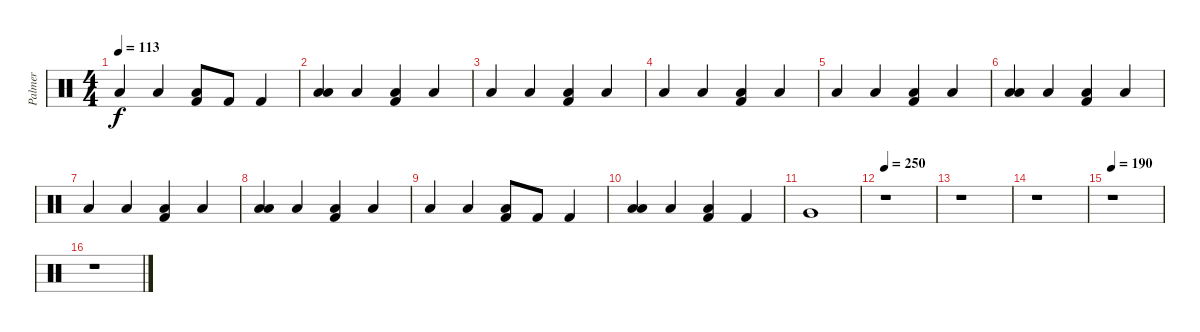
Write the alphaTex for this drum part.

\track ("Palmer" "Palmer") {instrument percussion}
\staff {score}
\articulation defaults
\ts (4 4)
\tempo 113
\clef neutral
\ks c "Low Floor Tom (hit)".4{dy f} "Low Floor Tom (hit)".4
("Low Floor Tom (hit)" "Kick (hit) 2").8 "Kick (hit) 2".8 "Kick (hit) 2".4 |
("Low Floor Tom (hit)" "Low Tom (hit)").4 "Low Floor Tom (hit)".4 ("Low Floor Tom (hit)" "Kick (hit) 2").4 "Low Floor Tom (hit)".4 |
"Low Floor Tom (hit)".4 "Low Floor Tom (hit)".4 ("Low Floor Tom (hit)" "Kick (hit) 2").4 "Low Floor Tom (hit)".4 |
"Low Floor Tom (hit)".4 "Low Floor Tom (hit)".4 ("Low Floor Tom (hit)" "Kick (hit) 2").4 "Low Floor Tom (hit)".4 |
"Low Floor Tom (hit)".4 "Low Floor Tom (hit)".4 ("Low Floor Tom (hit)" "Kick (hit) 2").4 "Low Floor Tom (hit)".4 |
("Low Floor Tom (hit)" "Low Tom (hit)").4 "Low Floor Tom (hit)".4 ("Low Floor Tom (hit)" "Kick (hit) 2").4 "Low Floor Tom (hit)".4 |
"Low Floor Tom (hit)".4 "Low Floor Tom (hit)".4 ("Low Floor Tom (hit)" "Kick (hit) 2").4 "Low Floor Tom (hit)".4 |
("Low Floor Tom (hit)" "Low Tom (hit)").4 "Low Floor Tom (hit)".4 ("Low Floor Tom (hit)" "Kick (hit) 2").4 "Low Floor Tom (hit)".4 |
"Low Floor Tom (hit)".4 "Low Floor Tom (hit)".4 ("Low Floor Tom (hit)" "Kick (hit) 2").8 "Kick (hit) 2".8 "Kick (hit) 2".4 |
("Low Floor Tom (hit)" "Low Tom (hit)").4 "Low Floor Tom (hit)".4 ("Low Floor Tom (hit)" "Kick (hit) 2").4 "Kick (hit) 2".4 |
"Very Low Tom (hit)".1 |
\tempo 250
r.1 |
r.1 |
r.1 |
\tempo 190
r.1 |
r.1
